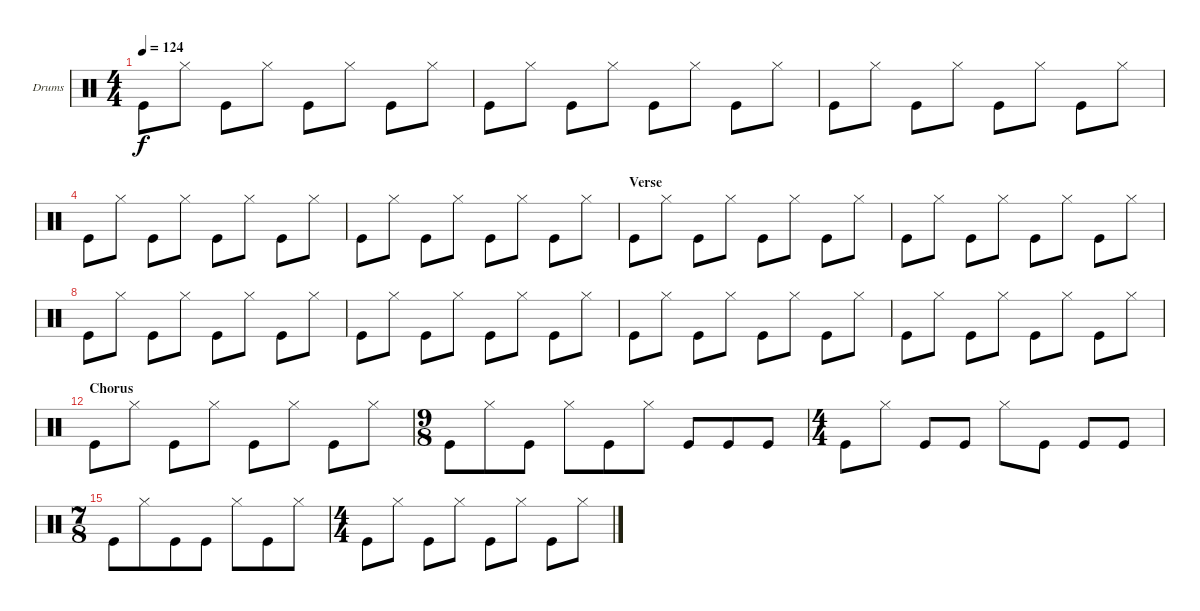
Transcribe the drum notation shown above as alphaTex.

\bracketExtendMode nobrackets
\firstSystemTrackNameOrientation horizontal
\otherSystemsTrackNameOrientation horizontal
\defaultBarNumberDisplay FirstOfSystem
\track ("Drumkit" "Drums") {instrument percussion}
\staff {score}
\articulation defaults
\ts (4 4)
\scale
0.405405
\tempo 124
\accidentals auto
\clef neutral
\ottava regular
\simile none
\ks c "Kick (hit)".8{dy f} "Hi-Hat (closed)".8 "Kick (hit)".8 "Hi-Hat (closed)".8 "Kick (hit)".8 "Hi-Hat (closed)".8 "Kick (hit)".8 "Hi-Hat (closed)".8
|
\scale
0.36 "Kick (hit)".8 "Hi-Hat (closed)".8 "Kick (hit)".8 "Hi-Hat (closed)".8 "Kick (hit)".8 "Hi-Hat (closed)".8 "Kick (hit)".8 "Hi-Hat (closed)".8 |
\scale
0.312 "Kick (hit)".8 "Hi-Hat (closed)".8 "Kick (hit)".8 "Hi-Hat (closed)".8 "Kick (hit)".8 "Hi-Hat (closed)".8 "Kick (hit)".8 "Hi-Hat (closed)".8 |
\scale
0.328 "Kick (hit)".8 "Hi-Hat (closed)".8 "Kick (hit)".8 "Hi-Hat (closed)".8 "Kick (hit)".8 "Hi-Hat (closed)".8 "Kick (hit)".8 "Hi-Hat (closed)".8 |
\scale
0.297297 "Kick (hit)".8 "Hi-Hat (closed)".8 "Kick (hit)".8 "Hi-Hat (closed)".8 "Kick (hit)".8 "Hi-Hat (closed)".8 "Kick (hit)".8 "Hi-Hat (closed)".8 |
\section ("" "Verse")
\scale
0.297297 "Kick (hit)".8 "Hi-Hat (closed)".8 "Kick (hit)".8 "Hi-Hat (closed)".8 "Kick (hit)".8 "Hi-Hat (closed)".8 "Kick (hit)".8 "Hi-Hat (closed)".8 |
\scale
0.405405 "Kick (hit)".8 "Hi-Hat (closed)".8 "Kick (hit)".8 "Hi-Hat (closed)".8 "Kick (hit)".8 "Hi-Hat (closed)".8 "Kick (hit)".8 "Hi-Hat (closed)".8 |
\scale
0.371901 "Kick (hit)".8 "Hi-Hat (closed)".8 "Kick (hit)".8 "Hi-Hat (closed)".8 "Kick (hit)".8 "Hi-Hat (closed)".8 "Kick (hit)".8 "Hi-Hat (closed)".8 |
\scale
0.355372 "Kick (hit)".8 "Hi-Hat (closed)".8 "Kick (hit)".8 "Hi-Hat (closed)".8 "Kick (hit)".8 "Hi-Hat (closed)".8 "Kick (hit)".8 "Hi-Hat (closed)".8 |
\scale
0.272727 "Kick (hit)".8 "Hi-Hat (closed)".8 "Kick (hit)".8 "Hi-Hat (closed)".8 "Kick (hit)".8 "Hi-Hat (closed)".8 "Kick (hit)".8 "Hi-Hat (closed)".8 |
\scale
0.271605 "Kick (hit)".8 "Hi-Hat (closed)".8 "Kick (hit)".8 "Hi-Hat (closed)".8 "Kick (hit)".8 "Hi-Hat (closed)".8 "Kick (hit)".8 "Hi-Hat (closed)".8 |
\section ("" "Chorus")
\scale
0.271605 "Kick (hit)".8 "Hi-Hat (closed)".8 "Kick (hit)".8 "Hi-Hat (closed)".8 "Kick (hit)".8 "Hi-Hat (closed)".8 "Kick (hit)".8 "Hi-Hat (closed)".8 |
\ts (9 8)
\scale
0.45679 "Kick (hit)".8 "Hi-Hat (closed)".8 "Kick (hit)".8 "Hi-Hat (closed)".8 "Kick (hit)".8 "Hi-Hat (closed)".8 "Kick (hit)".8 "Kick (hit)".8 "Kick (hit)".8 |
\ts (4 4)
\scale
0.345324 "Kick (hit)".8 "Hi-Hat (closed)".8 "Kick (hit)".8 "Kick (hit)".8 "Hi-Hat (closed)".8 "Kick (hit)".8 "Kick (hit)".8 "Kick (hit)".8 |
\ts (7 8)
\scale
0.309353 "Kick (hit)".8 "Hi-Hat (closed)".8 "Kick (hit)".8 "Kick (hit)".8 "Hi-Hat (closed)".8 "Kick (hit)".8 "Hi-Hat (closed)".8 |
\ts (4 4)
\scale
0.345324 "Kick (hit)".8 "Hi-Hat (closed)".8 "Kick (hit)".8 "Hi-Hat (closed)".8 "Kick (hit)".8 "Hi-Hat (closed)".8 "Kick (hit)".8 "Hi-Hat (closed)".8
